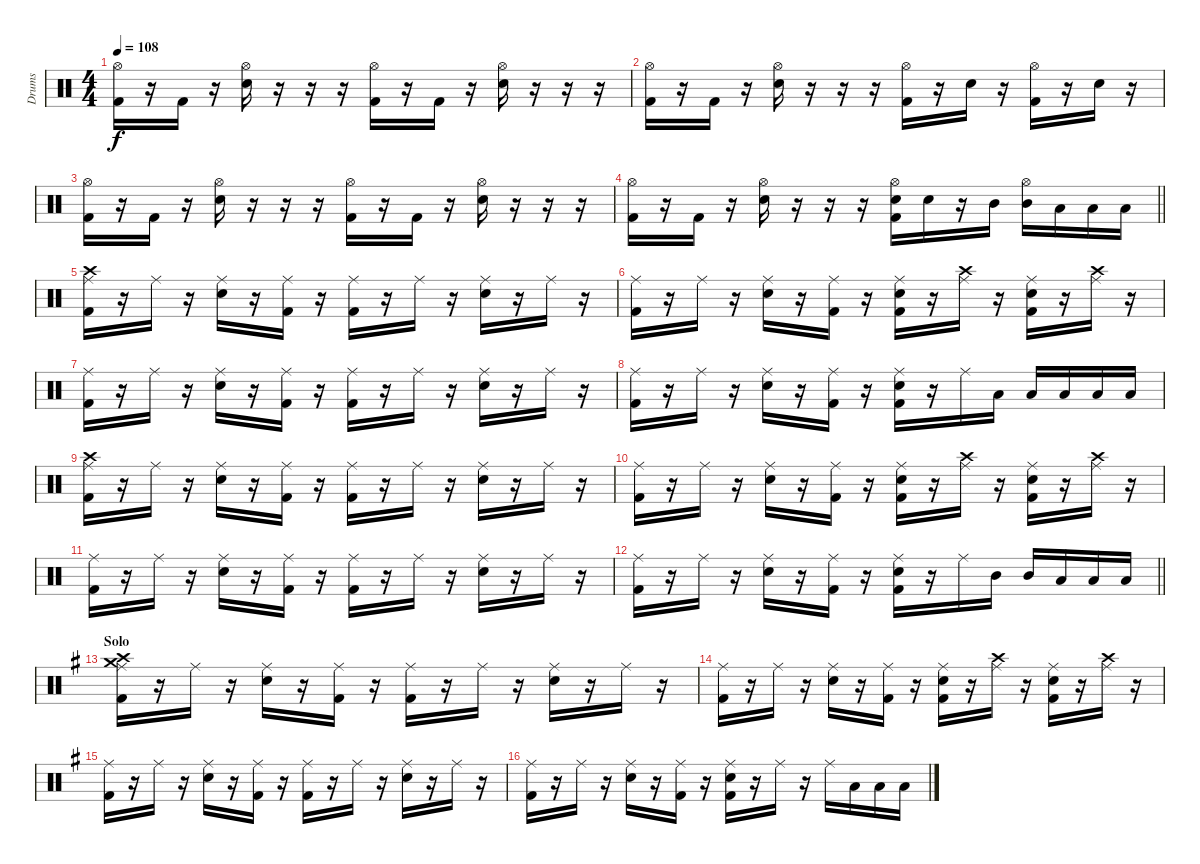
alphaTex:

\track ("Drums" "Drums") {instrument percussion}
\staff {score}
\articulation defaults
\ts (4 4)
\tempo 108
\clef neutral
\ks c
("Hi-Hat (open)" "Kick (hit) 2").16{dy f} r.16 "Kick (hit) 2".16 r.16 ("Snare (hit) 2" "Hi-Hat (open)").16 r.16 r.16 r.16 ("Hi-Hat (open)" "Kick (hit) 2").16 r.16 "Kick (hit) 2".16 r.16 ("Snare (hit) 2" "Hi-Hat (open)").16 r.16 r.16 r.16 |
("Hi-Hat (open)" "Kick (hit) 2").16 r.16 "Kick (hit) 2".16 r.16 ("Snare (hit) 2" "Hi-Hat (open)").16 r.16 r.16 r.16 ("Hi-Hat (open)" "Kick (hit) 2").16 r.16 "Snare (hit) 2".16 r.16 ("Hi-Hat (open)" "Kick (hit) 2").16 r.16 "Snare (hit) 2".16 r.16 |
("Hi-Hat (open)" "Kick (hit) 2").16 r.16 "Kick (hit) 2".16 r.16 ("Snare (hit) 2" "Hi-Hat (open)").16 r.16 r.16 r.16 ("Hi-Hat (open)" "Kick (hit) 2").16 r.16 "Kick (hit) 2".16 r.16 ("Snare (hit) 2" "Hi-Hat (open)").16 r.16 r.16 r.16 |
\barLineRight lightlight
("Hi-Hat (open)" "Kick (hit) 2").16 r.16 "Kick (hit) 2".16 r.16 ("Snare (hit) 2" "Hi-Hat (open)").16 r.16 r.16 r.16 ("Snare (hit) 2" "Hi-Hat (open)" "Kick (hit) 2").16 "Snare (hit) 2".16 r.16 "Mid Tom (hit)".16 ("Mid Tom (hit)" "Hi-Hat (open)").16 "Low Tom (hit)".16 "Low Tom (hit)".16 "Low Floor Tom (hit)".16 |
("Crash high (hit)" "Ride (middle)" "Kick (hit) 2").16 r.16 "Ride (middle)".16 r.16 ("Snare (hit) 2" "Ride (middle)").16 r.16 ("Ride (middle)" "Kick (hit) 2").16 r.16 ("Ride (middle)" "Kick (hit) 2").16 r.16 "Ride (middle)".16 r.16 ("Snare (hit) 2" "Ride (middle)").16 r.16 "Ride (middle)".16 r.16 |
("Ride (middle)" "Kick (hit) 2").16 r.16 "Ride (middle)".16 r.16 ("Snare (hit) 2" "Ride (middle)").16 r.16 ("Ride (middle)" "Kick (hit) 2").16 r.16 ("Snare (hit) 2" "Ride (middle)" "Kick (hit) 2").16 r.16 ("Crash high (hit)" "Ride (middle)").16 r.16 ("Snare (hit) 2" "Ride (middle)" "Kick (hit) 2").16 r.16 ("Crash high (hit)" "Ride (middle)").16 r.16 |
("Ride (middle)" "Kick (hit) 2").16 r.16 "Ride (middle)".16 r.16 ("Snare (hit) 2" "Ride (middle)").16 r.16 ("Ride (middle)" "Kick (hit) 2").16 r.16 ("Ride (middle)" "Kick (hit) 2").16 r.16 "Ride (middle)".16 r.16 ("Snare (hit) 2" "Ride (middle)").16 r.16 "Ride (middle)".16 r.16 |
("Ride (middle)" "Kick (hit) 2").16 r.16 "Ride (middle)".16 r.16 ("Snare (hit) 2" "Ride (middle)").16 r.16 ("Ride (middle)" "Kick (hit) 2").16 r.16 ("Snare (hit) 2" "Ride (middle)" "Kick (hit) 2").16 r.16 "Ride (middle)".16 "Low Tom (hit)".16 "Low Tom (hit)".16 "Low Floor Tom (hit)".16 "Low Floor Tom (hit)".16 "Low Floor Tom (hit)".16 |
("Crash high (hit)" "Ride (middle)" "Kick (hit) 2").16 r.16 "Ride (middle)".16 r.16 ("Snare (hit) 2" "Ride (middle)").16 r.16 ("Ride (middle)" "Kick (hit) 2").16 r.16 ("Ride (middle)" "Kick (hit) 2").16 r.16 "Ride (middle)".16 r.16 ("Snare (hit) 2" "Ride (middle)").16 r.16 "Ride (middle)".16 r.16 |
("Ride (middle)" "Kick (hit) 2").16 r.16 "Ride (middle)".16 r.16 ("Snare (hit) 2" "Ride (middle)").16 r.16 ("Ride (middle)" "Kick (hit) 2").16 r.16 ("Snare (hit) 2" "Ride (middle)" "Kick (hit) 2").16 r.16 ("Crash high (hit)" "Ride (middle)").16 r.16 ("Snare (hit) 2" "Ride (middle)" "Kick (hit) 2").16 r.16 ("Crash high (hit)" "Ride (middle)").16 r.16 |
("Ride (middle)" "Kick (hit) 2").16 r.16 "Ride (middle)".16 r.16 ("Snare (hit) 2" "Ride (middle)").16 r.16 ("Ride (middle)" "Kick (hit) 2").16 r.16 ("Ride (middle)" "Kick (hit) 2").16 r.16 "Ride (middle)".16 r.16 ("Snare (hit) 2" "Ride (middle)").16 r.16 "Ride (middle)".16 r.16 |
\barLineRight lightlight
("Ride (middle)" "Kick (hit) 2").16 r.16 "Ride (middle)".16 r.16 ("Snare (hit) 2" "Ride (middle)").16 r.16 ("Ride (middle)" "Kick (hit) 2").16 r.16 ("Snare (hit) 2" "Ride (middle)" "Kick (hit) 2").16 r.16 "Ride (middle)".16 "Mid Tom (hit)".16 "Mid Tom (hit)".16 "Low Tom (hit)".16 "Low Tom (hit)".16 "Low Tom (hit)".16 |
\section ("" "Solo")
\ks g
("Crash high (hit)" "Crash medium (hit)" "Ride (middle)" "Kick (hit) 2").16 r.16 "Ride (middle)".16 r.16 ("Snare (hit) 2" "Ride (middle)").16 r.16 ("Ride (middle)" "Kick (hit) 2").16 r.16 ("Ride (middle)" "Kick (hit) 2").16 r.16 "Ride (middle)".16 r.16 ("Snare (hit) 2" "Ride (middle)").16 r.16 "Ride (middle)".16 r.16 |
("Ride (middle)" "Kick (hit) 2").16 r.16 "Ride (middle)".16 r.16 ("Snare (hit) 2" "Ride (middle)").16 r.16 ("Ride (middle)" "Kick (hit) 2").16 r.16 ("Snare (hit) 2" "Ride (middle)" "Kick (hit) 2").16 r.16 ("Crash high (hit)" "Ride (middle)").16 r.16 ("Snare (hit) 2" "Ride (middle)" "Kick (hit) 2").16 r.16 ("Crash high (hit)" "Ride (middle)").16 r.16 |
("Ride (middle)" "Kick (hit) 2").16 r.16 "Ride (middle)".16 r.16 ("Snare (hit) 2" "Ride (middle)").16 r.16 ("Ride (middle)" "Kick (hit) 2").16 r.16 ("Ride (middle)" "Kick (hit) 2").16 r.16 "Ride (middle)".16 r.16 ("Snare (hit) 2" "Ride (middle)").16 r.16 "Ride (middle)".16 r.16 |
("Ride (middle)" "Kick (hit) 2").16 r.16 "Ride (middle)".16 r.16 ("Snare (hit) 2" "Ride (middle)").16 r.16 ("Ride (middle)" "Kick (hit) 2").16 r.16 ("Snare (hit) 2" "Ride (middle)" "Kick (hit) 2").16 r.16 "Ride (middle)".16 r.16 "Ride (middle)".16 "Low Tom (hit)".16 "Low Tom (hit)".16 "Low Tom (hit)".16
